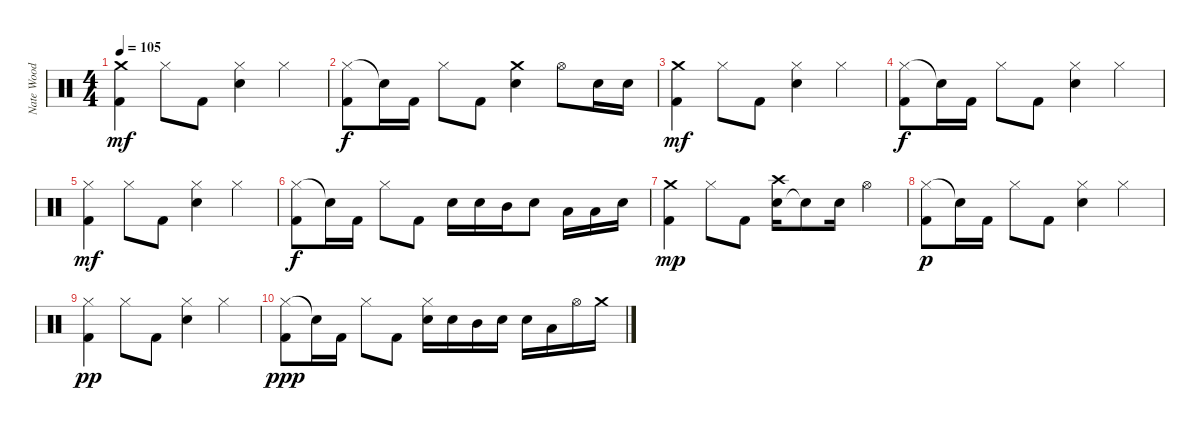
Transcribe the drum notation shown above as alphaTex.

\track ("Nate Wood" "Nate Wood") {instrument percussion}
\staff {score}
\articulation defaults
\ts (4 4)
\tempo 105
\clef neutral
\ks c
("Crash medium (hit)" "Kick (hit) 2").4{dy mf} "Hi-Hat (closed)".8 "Kick (hit) 2".8 ("Electric Snare (hit)" "Hi-Hat (closed)").4 "Hi-Hat (closed)".4 |
("Hi-Hat (closed)" "Kick (hit) 2").8{dy f} "Snare (hit)"{t}.16 "Kick (hit) 2".16 "Hi-Hat (closed)".8 "Kick (hit) 2".8 ("Crash medium (hit)" "Electric Snare (hit)").4 "Hi-Hat (open)".8 "Electric Snare (hit)".16 "Electric Snare (hit)".16 |
("Crash medium (hit)" "Kick (hit) 2").4{dy mf} "Hi-Hat (closed)".8 "Kick (hit) 2".8 ("Electric Snare (hit)" "Hi-Hat (closed)").4 "Hi-Hat (closed)".4 |
("Hi-Hat (closed)" "Kick (hit) 2").8{dy f} "Snare (hit)"{t}.16 "Kick (hit) 2".16 "Hi-Hat (closed)".8 "Kick (hit) 2".8 ("Electric Snare (hit)" "Hi-Hat (closed)").4 "Hi-Hat (closed)".4 |
("Hi-Hat (closed)" "Kick (hit) 2").4{dy mf} "Hi-Hat (closed)".8 "Kick (hit) 2".8 ("Electric Snare (hit)" "Hi-Hat (closed)").4 "Hi-Hat (closed)".4 |
("Hi-Hat (closed)" "Kick (hit) 2").8{dy f} "Snare (hit)"{t}.16 "Kick (hit) 2".16 "Hi-Hat (closed)".8 "Kick (hit) 2".8 "Electric Snare (hit)".16 "Electric Snare (hit)".16 "Mid Tom (hit)".16 "Electric Snare (hit)".8 "Low Tom (hit)".16 "Low Tom (hit)".16 "Electric Snare (hit)".16 |
("Crash medium (hit)" "Kick (hit) 2").4{dy mp} "Hi-Hat (closed)".8 "Kick (hit) 2".8 ("Electric Snare (hit)" "Crash high (hit)").16 "Snare (hit)"{t}.8 "Electric Snare (hit)".16 "Hi-Hat (open)".4 |
("Hi-Hat (closed)" "Kick (hit) 2").8{dy p} "Snare (hit)"{t}.16 "Kick (hit) 2".16 "Hi-Hat (closed)".8 "Kick (hit) 2".8 ("Electric Snare (hit)" "Hi-Hat (closed)").4 "Hi-Hat (closed)".4 |
("Hi-Hat (closed)" "Kick (hit) 2").4{dy pp} "Hi-Hat (closed)".8 "Kick (hit) 2".8 ("Electric Snare (hit)" "Hi-Hat (closed)").4 "Hi-Hat (closed)".4 |
("Hi-Hat (closed)" "Kick (hit) 2").8{dy ppp} "Snare (hit)"{t}.16 "Kick (hit) 2".16 "Hi-Hat (closed)".8 "Kick (hit) 2".8 ("Electric Snare (hit)" "Hi-Hat (closed)").16 "Electric Snare (hit)".16 "Mid Tom (hit)".16 "Electric Snare (hit)".16 "Electric Snare (hit)".16 "Low Tom (hit)".16 "Hi-Hat (open)".16 "Crash medium (hit)".16
